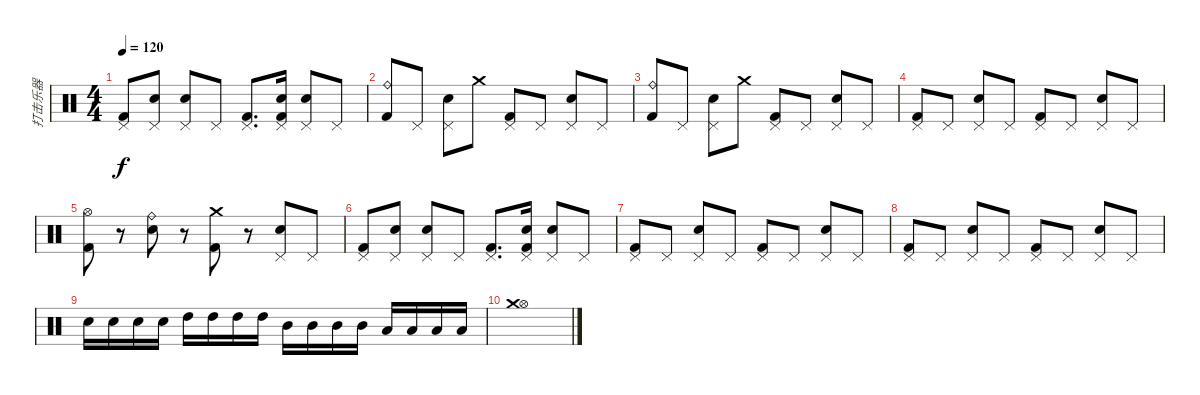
\track ("打击乐器" "打击乐器") {instrument percussion}
\staff {score}
\articulation defaults
\ts (4 4)
\tempo 120
\clef neutral
\ks c
("Pedal Hi-Hat (hit)" "Kick (hit) 2").8{dy f} ("Pedal Hi-Hat (hit)" "Electric Snare (hit)").8 ("Pedal Hi-Hat (hit)" "Electric Snare (hit)").8 "Pedal Hi-Hat (hit)".8 ("Pedal Hi-Hat (hit)" "Kick (hit) 2").8{d} ("Pedal Hi-Hat (hit)" "Electric Snare (hit)" "Kick (hit) 2").16 ("Pedal Hi-Hat (hit)" "Electric Snare (hit)").8 "Pedal Hi-Hat (hit)".8 |
("Ride (bell)" "Kick (hit) 2").8 "Pedal Hi-Hat (hit)".8 ("Pedal Hi-Hat (hit)" "Electric Snare (hit)").8 "Crash medium (hit)".8 ("Pedal Hi-Hat (hit)" "Kick (hit) 2").8 "Pedal Hi-Hat (hit)".8 ("Pedal Hi-Hat (hit)" "Electric Snare (hit)").8 "Pedal Hi-Hat (hit)".8 |
("Ride (bell)" "Kick (hit) 2").8 "Pedal Hi-Hat (hit)".8 ("Pedal Hi-Hat (hit)" "Electric Snare (hit)").8 "Crash medium (hit)".8 ("Pedal Hi-Hat (hit)" "Kick (hit) 2").8 "Pedal Hi-Hat (hit)".8 ("Pedal Hi-Hat (hit)" "Electric Snare (hit)").8 "Pedal Hi-Hat (hit)".8 |
("Pedal Hi-Hat (hit)" "Kick (hit) 2").8 "Pedal Hi-Hat (hit)".8 ("Pedal Hi-Hat (hit)" "Electric Snare (hit)").8 "Pedal Hi-Hat (hit)".8 ("Pedal Hi-Hat (hit)" "Kick (hit) 2").8 "Pedal Hi-Hat (hit)".8 ("Pedal Hi-Hat (hit)" "Electric Snare (hit)").8 "Pedal Hi-Hat (hit)".8 |
("Hi-Hat (open)" "Kick (hit) 2").8 r.8 ("Ride (bell)" "Electric Snare (hit)").8 r.8 ("Crash medium (hit)" "Kick (hit) 2").8 r.8 ("Pedal Hi-Hat (hit)" "Electric Snare (hit)").8 "Pedal Hi-Hat (hit)".8 |
("Pedal Hi-Hat (hit)" "Kick (hit) 2").8 ("Pedal Hi-Hat (hit)" "Electric Snare (hit)").8 ("Pedal Hi-Hat (hit)" "Electric Snare (hit)").8 "Pedal Hi-Hat (hit)".8 ("Pedal Hi-Hat (hit)" "Kick (hit) 2").8{d} ("Pedal Hi-Hat (hit)" "Electric Snare (hit)" "Kick (hit) 2").16 ("Pedal Hi-Hat (hit)" "Electric Snare (hit)").8 "Pedal Hi-Hat (hit)".8 |
("Pedal Hi-Hat (hit)" "Kick (hit) 2").8 "Pedal Hi-Hat (hit)".8 ("Pedal Hi-Hat (hit)" "Electric Snare (hit)").8 "Pedal Hi-Hat (hit)".8 ("Pedal Hi-Hat (hit)" "Kick (hit) 2").8 "Pedal Hi-Hat (hit)".8 ("Pedal Hi-Hat (hit)" "Electric Snare (hit)").8 "Pedal Hi-Hat (hit)".8 |
("Pedal Hi-Hat (hit)" "Kick (hit) 2").8 "Pedal Hi-Hat (hit)".8 ("Pedal Hi-Hat (hit)" "Electric Snare (hit)").8 "Pedal Hi-Hat (hit)".8 ("Pedal Hi-Hat (hit)" "Kick (hit) 2").8 "Pedal Hi-Hat (hit)".8 ("Pedal Hi-Hat (hit)" "Electric Snare (hit)").8 "Pedal Hi-Hat (hit)".8 |
"Electric Snare (hit)".16 "Electric Snare (hit)".16 "Electric Snare (hit)".16 "Electric Snare (hit)".16 "High Tom (hit)".16 "High Tom (hit)".16 "High Tom (hit)".16 "High Tom (hit)".16 "Mid Tom (hit)".16 "Mid Tom (hit)".16 "Mid Tom (hit)".16 "Mid Tom (hit)".16 "Low Tom (hit)".16 "Low Tom (hit)".16 "Low Tom (hit)".16 "Low Tom (hit)".16 |
("Hi-Hat (open)" "Crash medium (hit)").1
